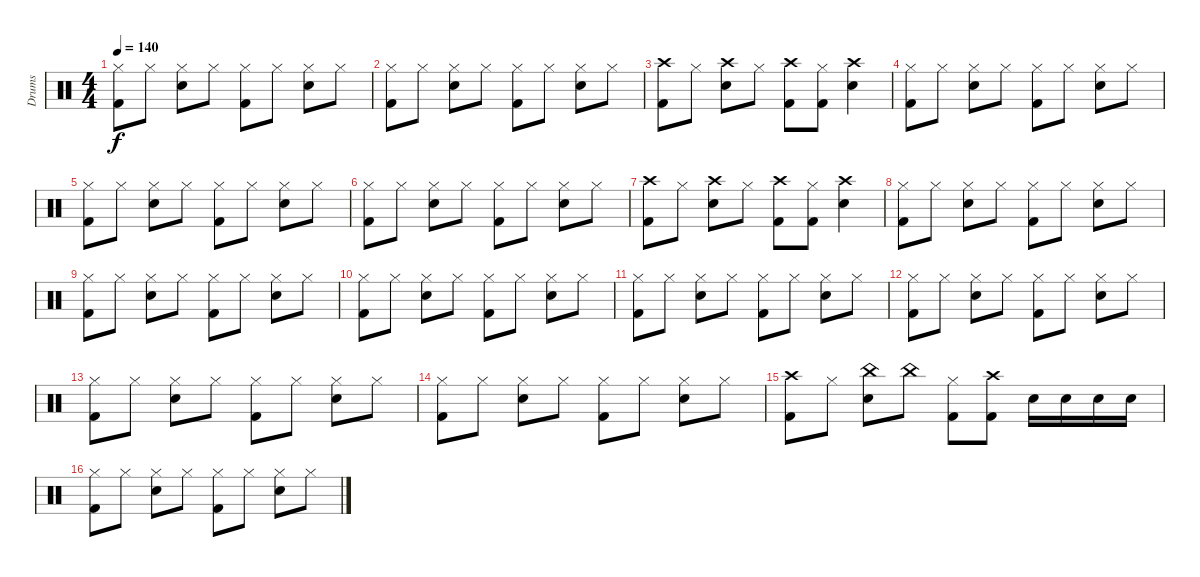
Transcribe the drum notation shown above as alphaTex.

\track ("Drums" "Drums") {instrument percussion}
\staff {score}
\articulation defaults
\ts (4 4)
\tempo 140
\clef neutral
\ks c
("Hi-Hat (closed)" "Kick (hit) 2").8{dy f} "Hi-Hat (closed)".8 ("Hi-Hat (closed)" "Electric Snare (hit)").8 "Hi-Hat (closed)".8 ("Hi-Hat (closed)" "Kick (hit) 2").8 "Hi-Hat (closed)".8 ("Hi-Hat (closed)" "Electric Snare (hit)").8 "Hi-Hat (closed)".8 |
("Hi-Hat (closed)" "Kick (hit) 2").8 "Hi-Hat (closed)".8 ("Hi-Hat (closed)" "Electric Snare (hit)").8 "Hi-Hat (closed)".8 ("Hi-Hat (closed)" "Kick (hit) 2").8 "Hi-Hat (closed)".8 ("Hi-Hat (closed)" "Electric Snare (hit)").8 "Hi-Hat (closed)".8 |
("Crash high (hit)" "Kick (hit) 2").8 "Hi-Hat (closed)".8 ("Crash high (hit)" "Electric Snare (hit)").8 "Hi-Hat (closed)".8 ("Crash high (hit)" "Kick (hit) 2").8 ("Hi-Hat (closed)" "Kick (hit) 2").8 ("Crash high (hit)" "Electric Snare (hit)").4 |
("Hi-Hat (closed)" "Kick (hit) 2").8 "Hi-Hat (closed)".8 ("Hi-Hat (closed)" "Electric Snare (hit)").8 "Hi-Hat (closed)".8 ("Hi-Hat (closed)" "Kick (hit) 2").8 "Hi-Hat (closed)".8 ("Hi-Hat (closed)" "Electric Snare (hit)").8 "Hi-Hat (closed)".8 |
("Hi-Hat (closed)" "Kick (hit) 2").8 "Hi-Hat (closed)".8 ("Hi-Hat (closed)" "Electric Snare (hit)").8 "Hi-Hat (closed)".8 ("Hi-Hat (closed)" "Kick (hit) 2").8 "Hi-Hat (closed)".8 ("Hi-Hat (closed)" "Electric Snare (hit)").8 "Hi-Hat (closed)".8 |
("Hi-Hat (closed)" "Kick (hit) 2").8 "Hi-Hat (closed)".8 ("Hi-Hat (closed)" "Electric Snare (hit)").8 "Hi-Hat (closed)".8 ("Hi-Hat (closed)" "Kick (hit) 2").8 "Hi-Hat (closed)".8 ("Hi-Hat (closed)" "Electric Snare (hit)").8 "Hi-Hat (closed)".8 |
("Crash high (hit)" "Kick (hit) 2").8 "Hi-Hat (closed)".8 ("Crash high (hit)" "Electric Snare (hit)").8 "Hi-Hat (closed)".8 ("Crash high (hit)" "Kick (hit) 2").8 ("Hi-Hat (closed)" "Kick (hit) 2").8 ("Crash high (hit)" "Electric Snare (hit)").4 |
("Hi-Hat (closed)" "Kick (hit) 2").8 "Hi-Hat (closed)".8 ("Hi-Hat (closed)" "Electric Snare (hit)").8 "Hi-Hat (closed)".8 ("Hi-Hat (closed)" "Kick (hit) 2").8 "Hi-Hat (closed)".8 ("Hi-Hat (closed)" "Electric Snare (hit)").8 "Hi-Hat (closed)".8 |
("Hi-Hat (closed)" "Kick (hit) 2").8 "Hi-Hat (closed)".8 ("Hi-Hat (closed)" "Electric Snare (hit)").8 "Hi-Hat (closed)".8 ("Hi-Hat (closed)" "Kick (hit) 2").8 "Hi-Hat (closed)".8 ("Hi-Hat (closed)" "Electric Snare (hit)").8 "Hi-Hat (closed)".8 |
("Hi-Hat (closed)" "Kick (hit) 2").8 "Hi-Hat (closed)".8 ("Hi-Hat (closed)" "Electric Snare (hit)").8 "Hi-Hat (closed)".8 ("Hi-Hat (closed)" "Kick (hit) 2").8 "Hi-Hat (closed)".8 ("Hi-Hat (closed)" "Electric Snare (hit)").8 "Hi-Hat (closed)".8 |
("Hi-Hat (closed)" "Kick (hit) 2").8 "Hi-Hat (closed)".8 ("Hi-Hat (closed)" "Electric Snare (hit)").8 "Hi-Hat (closed)".8 ("Hi-Hat (closed)" "Kick (hit) 2").8 "Hi-Hat (closed)".8 ("Hi-Hat (closed)" "Electric Snare (hit)").8 "Hi-Hat (closed)".8 |
("Hi-Hat (closed)" "Kick (hit) 2").8 "Hi-Hat (closed)".8 ("Hi-Hat (closed)" "Electric Snare (hit)").8 "Hi-Hat (closed)".8 ("Hi-Hat (closed)" "Kick (hit) 2").8 "Hi-Hat (closed)".8 ("Hi-Hat (closed)" "Electric Snare (hit)").8 "Hi-Hat (closed)".8 |
("Hi-Hat (closed)" "Kick (hit) 2").8 "Hi-Hat (closed)".8 ("Hi-Hat (closed)" "Electric Snare (hit)").8 "Hi-Hat (closed)".8 ("Hi-Hat (closed)" "Kick (hit) 2").8 "Hi-Hat (closed)".8 ("Hi-Hat (closed)" "Electric Snare (hit)").8 "Hi-Hat (closed)".8 |
("Hi-Hat (closed)" "Kick (hit) 2").8 "Hi-Hat (closed)".8 ("Hi-Hat (closed)" "Electric Snare (hit)").8 "Hi-Hat (closed)".8 ("Hi-Hat (closed)" "Kick (hit) 2").8 "Hi-Hat (closed)".8 ("Hi-Hat (closed)" "Electric Snare (hit)").8 "Hi-Hat (closed)".8 |
("Crash high (hit)" "Kick (hit) 2").8 "Hi-Hat (closed)".8 ("China (hit)" "Electric Snare (hit)").8 "China (hit)".8 ("Hi-Hat (closed)" "Kick (hit) 2").8 ("Crash high (hit)" "Kick (hit) 2").8 "Electric Snare (hit)".16 "Electric Snare (hit)".16 "Electric Snare (hit)".16 "Electric Snare (hit)".16 |
("Hi-Hat (closed)" "Kick (hit) 2").8 "Hi-Hat (closed)".8 ("Hi-Hat (closed)" "Electric Snare (hit)").8 "Hi-Hat (closed)".8 ("Hi-Hat (closed)" "Kick (hit) 2").8 "Hi-Hat (closed)".8 ("Hi-Hat (closed)" "Electric Snare (hit)").8 "Hi-Hat (closed)".8
